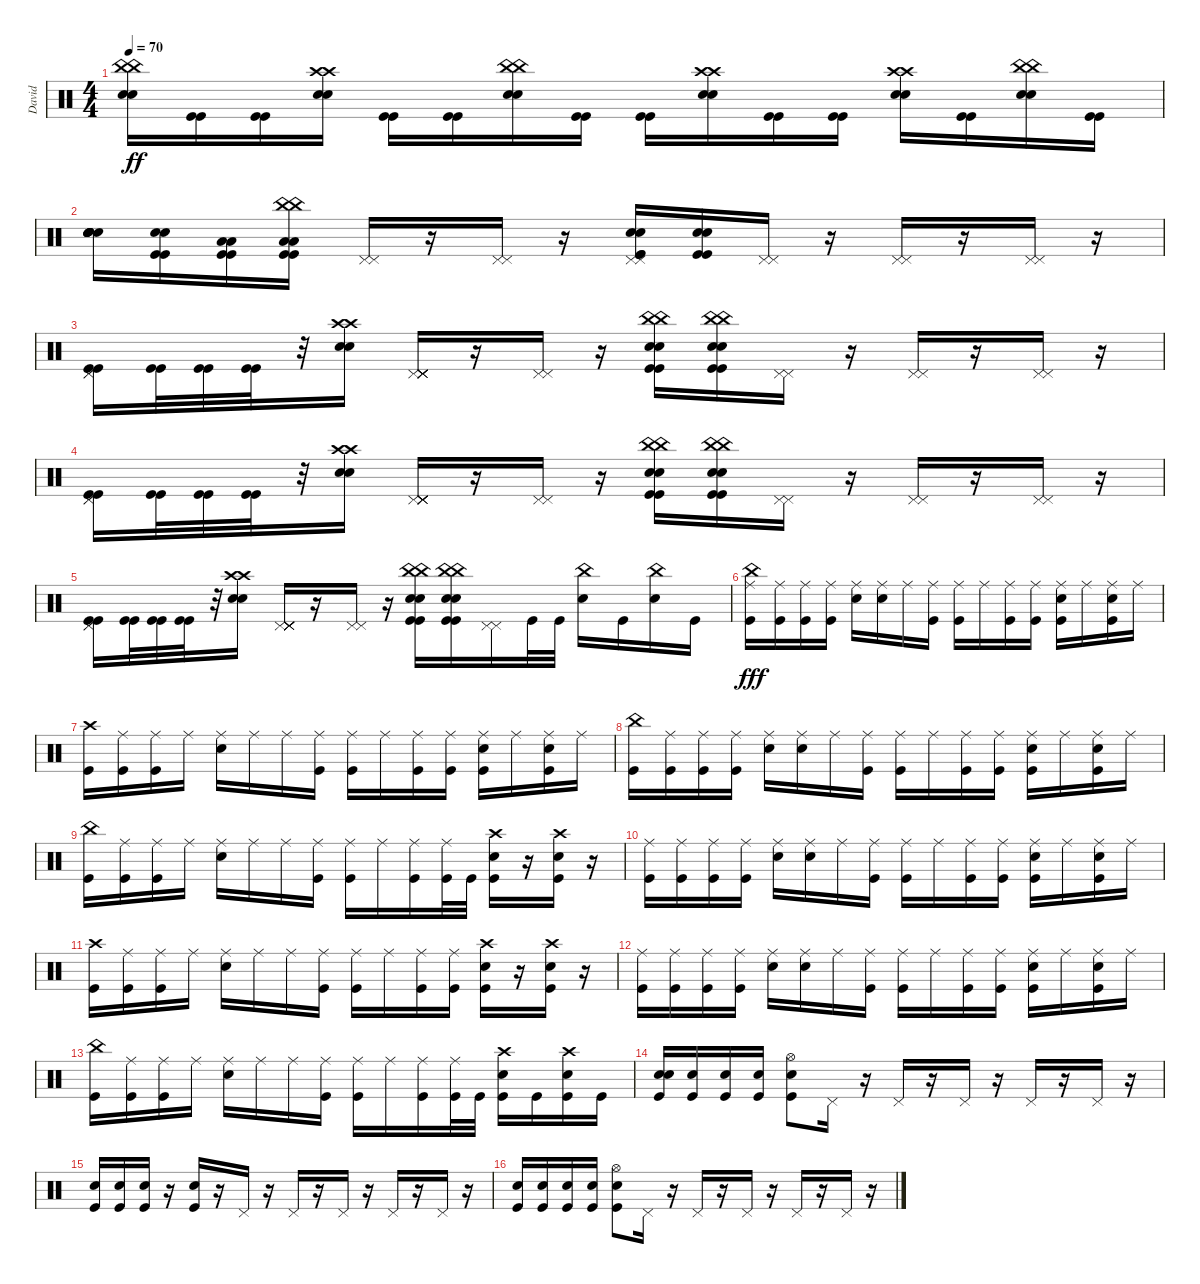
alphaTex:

\track ("David" "David") {instrument percussion}
\staff {score}
\articulation defaults
\ts (4 4)
\tempo 70
\clef neutral
\ks c
("China (hit)" "China (hit)" "Snare (hit) 2" "Snare (hit) 2").16{dy ff} ("Kick (hit)" "Kick (hit)").16 ("Kick (hit)" "Kick (hit)").16 ("Snare (hit) 2" "Snare (hit) 2" "Crash high (hit)" "Crash high (hit)").16 ("Kick (hit)" "Kick (hit)").16 ("Kick (hit)" "Kick (hit)").16 ("Snare (hit) 2" "Snare (hit) 2" "China (hit)" "China (hit)").16 ("Kick (hit)" "Kick (hit)").16 ("Kick (hit)" "Kick (hit)").16 ("Crash high (hit)" "Crash high (hit)" "Snare (hit) 2" "Snare (hit) 2").16 ("Kick (hit)" "Kick (hit)").16 ("Kick (hit)" "Kick (hit)").16 ("Snare (hit) 2" "Snare (hit) 2" "Crash high (hit)" "Crash high (hit)").16 ("Kick (hit)" "Kick (hit)").16 ("Snare (hit) 2" "Snare (hit) 2" "China (hit)" "China (hit)").16 ("Kick (hit)" "Kick (hit)").16 |
("Snare (hit) 2" "Snare (hit) 2" "Snare (hit) 2" "Snare (hit) 2" "Snare (hit) 2" "Snare (hit) 2").16 ("Kick (hit)" "Kick (hit)" "Snare (hit) 2" "Snare (hit) 2").16 ("Low Tom (hit)" "Low Tom (hit)" "Kick (hit)" "Kick (hit)").16 ("China (hit)" "China (hit)" "Low Tom (hit)" "Low Tom (hit)" "Kick (hit)" "Kick (hit)").16 ("Pedal Hi-Hat (hit)" "Pedal Hi-Hat (hit)").16 r.16 ("Pedal Hi-Hat (hit)" "Pedal Hi-Hat (hit)").16 r.16 ("Snare (hit) 2" "Snare (hit) 2" "Kick (hit)" "Kick (hit)" "Pedal Hi-Hat (hit)" "Pedal Hi-Hat (hit)").16 ("Snare (hit) 2" "Snare (hit) 2" "Kick (hit)" "Kick (hit)").16 ("Pedal Hi-Hat (hit)" "Pedal Hi-Hat (hit)").16 r.16 ("Pedal Hi-Hat (hit)" "Pedal Hi-Hat (hit)").16 r.16 ("Pedal Hi-Hat (hit)" "Pedal Hi-Hat (hit)").16 r.16 |
("Kick (hit)" "Kick (hit)" "Pedal Hi-Hat (hit)" "Pedal Hi-Hat (hit)").16 ("Kick (hit)" "Kick (hit)").32 ("Kick (hit)" "Kick (hit)").32 ("Kick (hit)" "Kick (hit)").32 r.32 ("Crash high (hit)" "Crash high (hit)" "Snare (hit) 2" "Snare (hit) 2").16 ("Pedal Hi-Hat (hit)" "Pedal Hi-Hat (hit)" "Pedal Hi-Hat (hit)" "Pedal Hi-Hat (hit)" "Pedal Hi-Hat (hit)" "Pedal Hi-Hat (hit)").16 r.16 ("Pedal Hi-Hat (hit)" "Pedal Hi-Hat (hit)").16 r.16 ("Snare (hit) 2" "Snare (hit) 2" "Kick (hit)" "Kick (hit)" "China (hit)" "China (hit)").16 ("Snare (hit) 2" "Snare (hit) 2" "Kick (hit)" "Kick (hit)" "China (hit)" "China (hit)").16 ("Pedal Hi-Hat (hit)" "Pedal Hi-Hat (hit)").16 r.16 ("Pedal Hi-Hat (hit)" "Pedal Hi-Hat (hit)").16 r.16 ("Pedal Hi-Hat (hit)" "Pedal Hi-Hat (hit)").16 r.16 |
("Pedal Hi-Hat (hit)" "Pedal Hi-Hat (hit)" "Kick (hit)" "Kick (hit)").16 ("Kick (hit)" "Kick (hit)").32 ("Kick (hit)" "Kick (hit)").32 ("Kick (hit)" "Kick (hit)").32 r.32 ("Snare (hit) 2" "Snare (hit) 2" "Crash high (hit)" "Crash high (hit)").16 ("Pedal Hi-Hat (hit)" "Pedal Hi-Hat (hit)" "Pedal Hi-Hat (hit)" "Pedal Hi-Hat (hit)" "Pedal Hi-Hat (hit)" "Pedal Hi-Hat (hit)").16 r.16 ("Pedal Hi-Hat (hit)" "Pedal Hi-Hat (hit)").16 r.16 ("China (hit)" "China (hit)" "Kick (hit)" "Kick (hit)" "Snare (hit) 2" "Snare (hit) 2").16 ("China (hit)" "China (hit)" "Kick (hit)" "Kick (hit)" "Snare (hit) 2" "Snare (hit) 2").16 ("Pedal Hi-Hat (hit)" "Pedal Hi-Hat (hit)").16 r.16 ("Pedal Hi-Hat (hit)" "Pedal Hi-Hat (hit)").16 r.16 ("Pedal Hi-Hat (hit)" "Pedal Hi-Hat (hit)").16 r.16 |
("Pedal Hi-Hat (hit)" "Pedal Hi-Hat (hit)" "Kick (hit)" "Kick (hit)").16 ("Kick (hit)" "Kick (hit)").32 ("Kick (hit)" "Kick (hit)").32 ("Kick (hit)" "Kick (hit)").32 r.32 ("Snare (hit) 2" "Snare (hit) 2" "Crash high (hit)" "Crash high (hit)").16 ("Pedal Hi-Hat (hit)" "Pedal Hi-Hat (hit)" "Pedal Hi-Hat (hit)" "Pedal Hi-Hat (hit)" "Pedal Hi-Hat (hit)" "Pedal Hi-Hat (hit)").16 r.16 ("Pedal Hi-Hat (hit)" "Pedal Hi-Hat (hit)").16 r.16 ("China (hit)" "China (hit)" "Kick (hit)" "Kick (hit)" "Snare (hit) 2" "Snare (hit) 2").16 ("China (hit)" "China (hit)" "Kick (hit)" "Kick (hit)" "Snare (hit) 2" "Snare (hit) 2").16 ("Pedal Hi-Hat (hit)" "Pedal Hi-Hat (hit)").16 "Kick (hit)".32 "Kick (hit)".32 ("China (hit)" "Snare (hit) 2").16 "Kick (hit)".16 ("China (hit)" "Snare (hit) 2").16 "Kick (hit)".16 |
("China (hit)" "Ride (middle)" "Kick (hit)").16{dy fff} ("Ride (middle)" "Kick (hit)").16 ("Ride (middle)" "Kick (hit)").16 ("Ride (middle)" "Kick (hit)").16 ("Ride (middle)" "Snare (hit) 2").16 ("Ride (middle)" "Snare (hit) 2").16 "Ride (middle)".16 ("Ride (middle)" "Kick (hit)").16 ("Ride (middle)" "Kick (hit)").16 "Ride (middle)".16 ("Ride (middle)" "Kick (hit)").16 ("Ride (middle)" "Kick (hit)").16 ("Ride (middle)" "Snare (hit) 2" "Kick (hit)").16 "Ride (middle)".16 ("Ride (middle)" "Snare (hit) 2" "Kick (hit)").16 "Ride (middle)".16 |
("Crash high (hit)" "Kick (hit)").16 ("Ride (middle)" "Kick (hit)").16 ("Ride (middle)" "Kick (hit)").16 "Ride (middle)".16 ("Ride (middle)" "Snare (hit) 2").16 "Ride (middle)".16 "Ride (middle)".16 ("Ride (middle)" "Kick (hit)").16 ("Ride (middle)" "Kick (hit)").16 "Ride (middle)".16 ("Ride (middle)" "Kick (hit)").16 ("Ride (middle)" "Kick (hit)").16 ("Snare (hit) 2" "Kick (hit)" "Ride (middle)").16 "Ride (middle)".16 ("Snare (hit) 2" "Kick (hit)" "Ride (middle)").16 "Ride (middle)".16 |
("Kick (hit)" "China (hit)").16 ("Kick (hit)" "Ride (middle)").16 ("Kick (hit)" "Ride (middle)").16 ("Kick (hit)" "Ride (middle)").16 ("Snare (hit) 2" "Ride (middle)").16 ("Snare (hit) 2" "Ride (middle)").16 "Ride (middle)".16 ("Kick (hit)" "Ride (middle)").16 ("Kick (hit)" "Ride (middle)").16 "Ride (middle)".16 ("Kick (hit)" "Ride (middle)").16 ("Kick (hit)" "Ride (middle)").16 ("Kick (hit)" "Snare (hit) 2" "Ride (middle)").16 "Ride (middle)".16 ("Kick (hit)" "Snare (hit) 2" "Ride (middle)").16 "Ride (middle)".16 |
("Kick (hit)" "China (hit)").16 ("Kick (hit)" "Ride (middle)").16 ("Kick (hit)" "Ride (middle)").16 "Ride (middle)".16 ("Snare (hit) 2" "Ride (middle)").16 "Ride (middle)".16 "Ride (middle)".16 ("Kick (hit)" "Ride (middle)").16 ("Kick (hit)" "Ride (middle)").16 "Ride (middle)".16 ("Kick (hit)" "Ride (middle)").16 ("Kick (hit)" "Ride (middle)").32 "Kick (hit)".32 ("Kick (hit)" "Snare (hit) 2" "Crash high (hit)").16 r.16 ("Kick (hit)" "Snare (hit) 2" "Crash high (hit)").16 r.16 |
("Kick (hit)" "Ride (middle)").16 ("Kick (hit)" "Ride (middle)").16 ("Kick (hit)" "Ride (middle)").16 ("Kick (hit)" "Ride (middle)").16 ("Snare (hit) 2" "Ride (middle)").16 ("Snare (hit) 2" "Ride (middle)").16 "Ride (middle)".16 ("Kick (hit)" "Ride (middle)").16 ("Kick (hit)" "Ride (middle)").16 "Ride (middle)".16 ("Kick (hit)" "Ride (middle)").16 ("Kick (hit)" "Ride (middle)").16 ("Kick (hit)" "Snare (hit) 2" "Ride (middle)").16 "Ride (middle)".16 ("Kick (hit)" "Snare (hit) 2" "Ride (middle)").16 "Ride (middle)".16 |
("Kick (hit)" "Crash high (hit)").16 ("Kick (hit)" "Ride (middle)").16 ("Kick (hit)" "Ride (middle)").16 "Ride (middle)".16 ("Snare (hit) 2" "Ride (middle)").16 "Ride (middle)".16 "Ride (middle)".16 ("Kick (hit)" "Ride (middle)").16 ("Kick (hit)" "Ride (middle)").16 "Ride (middle)".16 ("Kick (hit)" "Ride (middle)").16 ("Kick (hit)" "Ride (middle)").16 ("Crash high (hit)" "Kick (hit)" "Snare (hit) 2").16 r.16 ("Crash high (hit)" "Kick (hit)" "Snare (hit) 2").16 r.16 |
("Ride (middle)" "Kick (hit)").16 ("Ride (middle)" "Kick (hit)").16 ("Ride (middle)" "Kick (hit)").16 ("Ride (middle)" "Kick (hit)").16 ("Ride (middle)" "Snare (hit) 2").16 ("Ride (middle)" "Snare (hit) 2").16 "Ride (middle)".16 ("Ride (middle)" "Kick (hit)").16 ("Ride (middle)" "Kick (hit)").16 "Ride (middle)".16 ("Ride (middle)" "Kick (hit)").16 ("Ride (middle)" "Kick (hit)").16 ("Ride (middle)" "Snare (hit) 2" "Kick (hit)").16 "Ride (middle)".16 ("Ride (middle)" "Snare (hit) 2" "Kick (hit)").16 "Ride (middle)".16 |
("China (hit)" "Kick (hit)").16 ("Ride (middle)" "Kick (hit)").16 ("Ride (middle)" "Kick (hit)").16 "Ride (middle)".16 ("Ride (middle)" "Snare (hit) 2").16 "Ride (middle)".16 "Ride (middle)".16 ("Ride (middle)" "Kick (hit)").16 ("Ride (middle)" "Kick (hit)").16 "Ride (middle)".16 ("Ride (middle)" "Kick (hit)").16 ("Ride (middle)" "Kick (hit)").32 "Kick (hit)".32 ("Crash high (hit)" "Snare (hit) 2" "Kick (hit)").16 "Kick (hit)".16 ("Crash high (hit)" "Snare (hit) 2" "Kick (hit)").16 "Kick (hit)".16 |
("Snare (hit) 2" "Snare (hit) 2" "Kick (hit)").16 ("Snare (hit) 2" "Kick (hit)").16 ("Snare (hit) 2" "Kick (hit)").16 ("Snare (hit) 2" "Kick (hit)").16 ("Snare (hit) 2" "Kick (hit)" "Hi-Hat (open)").8 "Pedal Hi-Hat (hit)".16 r.16 "Pedal Hi-Hat (hit)".16 r.16 "Pedal Hi-Hat (hit)".16 r.16 "Pedal Hi-Hat (hit)".16 r.16 "Pedal Hi-Hat (hit)".16 r.16 |
("Kick (hit)" "Snare (hit) 2").16 ("Kick (hit)" "Snare (hit) 2").16 ("Kick (hit)" "Snare (hit) 2").16 r.16 ("Kick (hit)" "Snare (hit) 2").16 r.16 "Pedal Hi-Hat (hit)".16 r.16 "Pedal Hi-Hat (hit)".16 r.16 "Pedal Hi-Hat (hit)".16 r.16 "Pedal Hi-Hat (hit)".16 r.16 "Pedal Hi-Hat (hit)".16 r.16 |
("Kick (hit)" "Snare (hit) 2").16 ("Kick (hit)" "Snare (hit) 2").16 ("Kick (hit)" "Snare (hit) 2").16 ("Kick (hit)" "Snare (hit) 2").16 ("Kick (hit)" "Snare (hit) 2" "Hi-Hat (open)").8 "Pedal Hi-Hat (hit)".16 r.16 "Pedal Hi-Hat (hit)".16 r.16 "Pedal Hi-Hat (hit)".16 r.16 "Pedal Hi-Hat (hit)".16 r.16 "Pedal Hi-Hat (hit)".16 r.16
